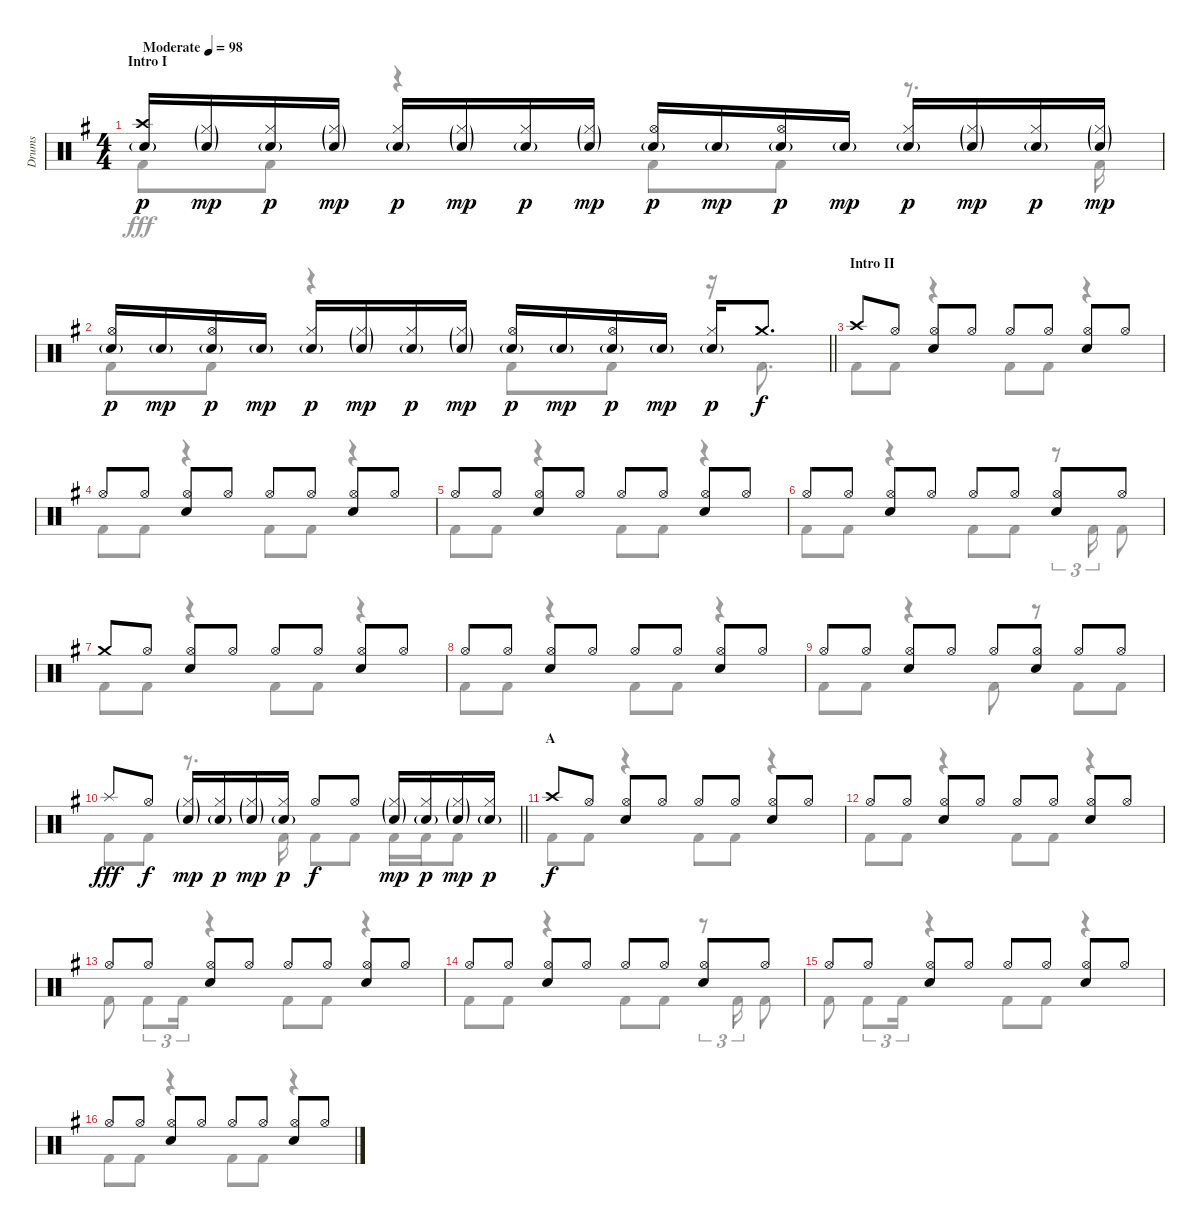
\track ("Drums" "Drums") {instrument percussion}
\staff {score}
\articulation defaults
\voice
\ts (4 4)
\section ("" "Intro I")
\tempo (98 "Moderate")
\clef neutral
\ks g
("Crash high (hit)" "Snare (hit) 2"{g}).16{dy p} ("Hi-Hat (closed)"{g} "Snare (hit) 2"{g}).16{dy mp} ("Hi-Hat (closed)" "Snare (hit) 2"{g}).16{dy p} ("Hi-Hat (closed)"{g} "Snare (hit) 2"{g}).16{dy mp} ("Hi-Hat (closed)" "Snare (hit) 2"{g}).16{dy p} ("Hi-Hat (closed)"{g} "Snare (hit) 2"{g}).16{dy mp} ("Hi-Hat (closed)" "Snare (hit) 2"{g}).16{dy p} ("Hi-Hat (closed)"{g} "Snare (hit) 2"{g}).16{dy mp} ("Hi-Hat (open)" "Snare (hit) 2"{g}).16{dy p} "Snare (hit) 2"{g}.16{dy mp} ("Hi-Hat (open)" "Snare (hit) 2"{g}).16{dy p} "Snare (hit) 2"{g}.16{dy mp} ("Hi-Hat (closed)" "Snare (hit) 2"{g}).16{dy p} ("Hi-Hat (closed)"{g} "Snare (hit) 2"{g}).16{dy mp} ("Hi-Hat (closed)" "Snare (hit) 2"{g}).16{dy p} ("Hi-Hat (closed)"{g} "Snare (hit) 2"{g}).16{dy mp} |
\barLineRight lightlight
("Hi-Hat (open)" "Snare (hit) 2"{g}).16{dy p} "Snare (hit) 2"{g}.16{dy mp} ("Hi-Hat (open)" "Snare (hit) 2"{g}).16{dy p} "Snare (hit) 2"{g}.16{dy mp} ("Hi-Hat (closed)" "Snare (hit) 2"{g}).16{dy p} ("Hi-Hat (closed)"{g} "Snare (hit) 2"{g}).16{dy mp} ("Hi-Hat (closed)" "Snare (hit) 2"{g}).16{dy p} ("Hi-Hat (closed)"{g} "Snare (hit) 2"{g}).16{dy mp} ("Hi-Hat (open)" "Snare (hit) 2"{g}).16{dy p} "Snare (hit) 2"{g}.16{dy mp} ("Hi-Hat (open)" "Snare (hit) 2"{g}).16{dy p} "Snare (hit) 2"{g}.16{dy mp} ("Hi-Hat (closed)" "Snare (hit) 2"{g}).16{dy p} "Crash medium (hit)".8{d dy f} |
\section ("" "Intro II")
"Crash high (hit)".8 "Hi-Hat (open)".8 ("Hi-Hat (open)" "Snare (hit) 2").8 "Hi-Hat (open)".8 "Hi-Hat (open)".8 "Hi-Hat (open)".8 ("Hi-Hat (open)" "Snare (hit) 2").8 "Hi-Hat (open)".8 |
"Hi-Hat (open)".8 "Hi-Hat (open)".8 ("Hi-Hat (open)" "Snare (hit) 2").8 "Hi-Hat (open)".8 "Hi-Hat (open)".8 "Hi-Hat (open)".8 ("Hi-Hat (open)" "Snare (hit) 2").8 "Hi-Hat (open)".8 |
"Hi-Hat (open)".8 "Hi-Hat (open)".8 ("Hi-Hat (open)" "Snare (hit) 2").8 "Hi-Hat (open)".8 "Hi-Hat (open)".8 "Hi-Hat (open)".8 ("Hi-Hat (open)" "Snare (hit) 2").8 "Hi-Hat (open)".8 |
"Hi-Hat (open)".8 "Hi-Hat (open)".8 ("Hi-Hat (open)" "Snare (hit) 2").8 "Hi-Hat (open)".8 "Hi-Hat (open)".8 "Hi-Hat (open)".8 ("Hi-Hat (open)" "Snare (hit) 2").8 "Hi-Hat (open)".8 |
"Crash medium (hit)".8 "Hi-Hat (open)".8 ("Hi-Hat (open)" "Snare (hit) 2").8 "Hi-Hat (open)".8 "Hi-Hat (open)".8 "Hi-Hat (open)".8 ("Hi-Hat (open)" "Snare (hit) 2").8 "Hi-Hat (open)".8 |
"Hi-Hat (open)".8 "Hi-Hat (open)".8 ("Hi-Hat (open)" "Snare (hit) 2").8 "Hi-Hat (open)".8 "Hi-Hat (open)".8 "Hi-Hat (open)".8 ("Hi-Hat (open)" "Snare (hit) 2").8 "Hi-Hat (open)".8 |
"Hi-Hat (open)".8 "Hi-Hat (open)".8 ("Hi-Hat (open)" "Snare (hit) 2").8 "Hi-Hat (open)".8 "Hi-Hat (open)".8 ("Hi-Hat (open)" "Snare (hit) 2").8 "Hi-Hat (open)".8 "Hi-Hat (open)".8 |
\barLineRight lightlight "Splash (hit)".8{dy fff} "Hi-Hat (open)".8{dy f}
("Hi-Hat (closed)"{g} "Snare (hit) 2"{g}).16{dy mp} ("Hi-Hat (closed)" "Snare (hit) 2"{g}).16{dy p} ("Hi-Hat (closed)"{g} "Snare (hit) 2"{g}).16{dy mp} ("Hi-Hat (closed)" "Snare (hit) 2"{g}).16{dy p} "Hi-Hat (open)".8{dy f} "Hi-Hat (open)".8 ("Hi-Hat (closed)"{g} "Snare (hit) 2"{g}).16{dy mp} ("Hi-Hat (closed)" "Snare (hit) 2"{g}).16{dy p} ("Hi-Hat (closed)"{g} "Snare (hit) 2"{g}).16{dy mp} ("Hi-Hat (closed)" "Snare (hit) 2"{g}).16{dy p} |
\section ("" "A")
"Crash high (hit)".8{dy f} "Hi-Hat (open)".8 ("Hi-Hat (open)" "Snare (hit) 2").8 "Hi-Hat (open)".8 "Hi-Hat (open)".8 "Hi-Hat (open)".8 ("Hi-Hat (open)" "Snare (hit) 2").8 "Hi-Hat (open)".8 |
"Hi-Hat (open)".8 "Hi-Hat (open)".8 ("Hi-Hat (open)" "Snare (hit) 2").8 "Hi-Hat (open)".8 "Hi-Hat (open)".8 "Hi-Hat (open)".8 ("Hi-Hat (open)" "Snare (hit) 2").8 "Hi-Hat (open)".8 |
"Hi-Hat (open)".8 "Hi-Hat (open)".8 ("Hi-Hat (open)" "Snare (hit) 2").8 "Hi-Hat (open)".8 "Hi-Hat (open)".8 "Hi-Hat (open)".8 ("Hi-Hat (open)" "Snare (hit) 2").8 "Hi-Hat (open)".8 |
"Hi-Hat (open)".8 "Hi-Hat (open)".8 ("Hi-Hat (open)" "Snare (hit) 2").8 "Hi-Hat (open)".8 "Hi-Hat (open)".8 "Hi-Hat (open)".8 ("Hi-Hat (open)" "Snare (hit) 2").8 "Hi-Hat (open)".8 |
"Hi-Hat (open)".8 "Hi-Hat (open)".8 ("Hi-Hat (open)" "Snare (hit) 2").8 "Hi-Hat (open)".8 "Hi-Hat (open)".8 "Hi-Hat (open)".8 ("Hi-Hat (open)" "Snare (hit) 2").8 "Hi-Hat (open)".8 |
"Hi-Hat (open)".8 "Hi-Hat (open)".8 ("Hi-Hat (open)" "Snare (hit) 2").8 "Hi-Hat (open)".8 "Hi-Hat (open)".8 "Hi-Hat (open)".8 ("Hi-Hat (open)" "Snare (hit) 2").8 "Hi-Hat (open)".8
\voice
\clef neutral
\ottava regular
\simile none
\ks g "Kick (hit) 2".8{dy fff} "Kick (hit) 2".8
r.4 "Kick (hit) 2".8 "Kick (hit) 2".8 r.8{d} "Kick (hit) 2".16 |
\barLineRight lightlight "Kick (hit) 2".8 "Kick (hit) 2".8
r.4 "Kick (hit) 2".8 "Kick (hit) 2".8 r.16 "Kick (hit) 2".8{d} |
"Kick (hit) 2".8 "Kick (hit) 2".8 r.4 "Kick (hit) 2".8 "Kick (hit) 2".8 r.4 |
"Kick (hit) 2".8 "Kick (hit) 2".8 r.4 "Kick (hit) 2".8 "Kick (hit) 2".8 r.4 |
"Kick (hit) 2".8 "Kick (hit) 2".8 r.4 "Kick (hit) 2".8 "Kick (hit) 2".8 r.4 |
"Kick (hit) 2".8 "Kick (hit) 2".8 r.4 "Kick (hit) 2".8 "Kick (hit) 2".8 r.8{tu (3 2)} "Kick (hit) 2".16{tu (3 2)} "Kick (hit) 2".8 |
"Kick (hit) 2".8 "Kick (hit) 2".8 r.4 "Kick (hit) 2".8 "Kick (hit) 2".8 r.4 |
"Kick (hit) 2".8 "Kick (hit) 2".8 r.4 "Kick (hit) 2".8 "Kick (hit) 2".8 r.4 |
"Kick (hit) 2".8 "Kick (hit) 2".8 r.4 "Kick (hit) 2".8 r.8 "Kick (hit) 2".8 "Kick (hit) 2".8 |
\barLineRight lightlight "Kick (hit) 2".8 "Kick (hit) 2".8
r.8{d} "Kick (hit) 2".16 "Kick (hit) 2".8 "Kick (hit) 2".8 "Kick (hit) 2".16 "Kick (hit) 2".16 "Kick (hit) 2".8 |
"Kick (hit) 2".8 "Kick (hit) 2".8 r.4 "Kick (hit) 2".8 "Kick (hit) 2".8 r.4 |
"Kick (hit) 2".8 "Kick (hit) 2".8 r.4 "Kick (hit) 2".8 "Kick (hit) 2".8 r.4 |
"Kick (hit) 2".8 "Kick (hit) 2".8{tu (3 2)} "Kick (hit) 2".16{tu (3 2)} r.4 "Kick (hit) 2".8 "Kick (hit) 2".8 r.4 |
"Kick (hit) 2".8 "Kick (hit) 2".8 r.4 "Kick (hit) 2".8 "Kick (hit) 2".8 r.8{tu (3 2)} "Kick (hit) 2".16{tu (3 2)} "Kick (hit) 2".8 |
"Kick (hit) 2".8 "Kick (hit) 2".8{tu (3 2)} "Kick (hit) 2".16{tu (3 2)} r.4 "Kick (hit) 2".8 "Kick (hit) 2".8 r.4 |
"Kick (hit) 2".8 "Kick (hit) 2".8 r.4 "Kick (hit) 2".8 "Kick (hit) 2".8 r.4
